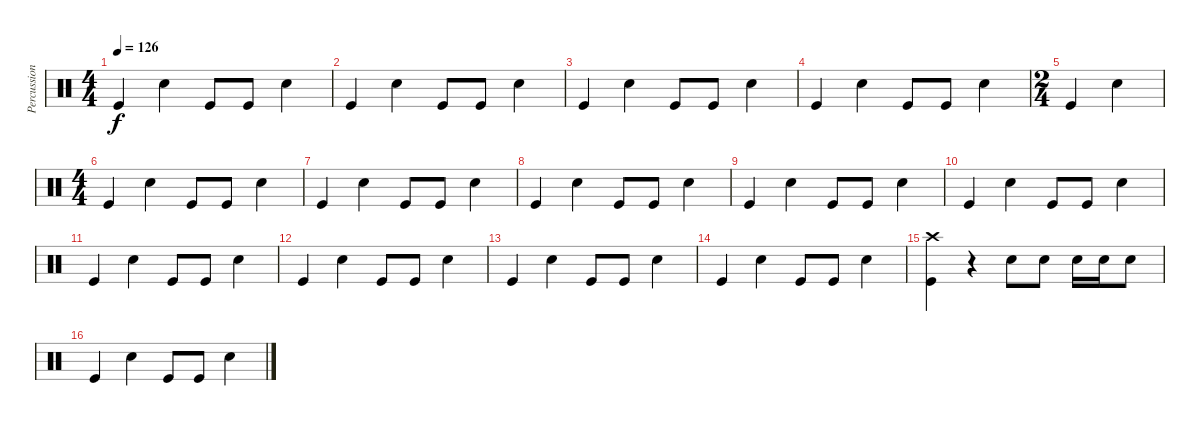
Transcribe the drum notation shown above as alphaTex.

\track ("Percussion" "Percussion") {instrument percussion}
\staff {score}
\articulation defaults
\ts (4 4)
\tempo 126
\clef neutral
\ks c "Kick (hit)".4{dy f} "Snare (hit) 2".4 "Kick (hit)".8 "Kick (hit)".8 "Snare (hit) 2".4
|
"Kick (hit)".4 "Snare (hit) 2".4 "Kick (hit)".8 "Kick (hit)".8 "Snare (hit) 2".4 |
"Kick (hit)".4 "Snare (hit) 2".4 "Kick (hit)".8 "Kick (hit)".8 "Snare (hit) 2".4 |
"Kick (hit)".4 "Snare (hit) 2".4 "Kick (hit)".8 "Kick (hit)".8 "Snare (hit) 2".4 |
\ts (2 4)
"Kick (hit)".4 "Snare (hit) 2".4 |
\ts (4 4)
"Kick (hit)".4 "Snare (hit) 2".4 "Kick (hit)".8 "Kick (hit)".8 "Snare (hit) 2".4 |
"Kick (hit)".4 "Snare (hit) 2".4 "Kick (hit)".8 "Kick (hit)".8 "Snare (hit) 2".4 |
"Kick (hit)".4 "Snare (hit) 2".4 "Kick (hit)".8 "Kick (hit)".8 "Snare (hit) 2".4 |
"Kick (hit)".4 "Snare (hit) 2".4 "Kick (hit)".8 "Kick (hit)".8 "Snare (hit) 2".4 |
"Kick (hit)".4 "Snare (hit) 2".4 "Kick (hit)".8 "Kick (hit)".8 "Snare (hit) 2".4 |
"Kick (hit)".4 "Snare (hit) 2".4 "Kick (hit)".8 "Kick (hit)".8 "Snare (hit) 2".4 |
"Kick (hit)".4 "Snare (hit) 2".4 "Kick (hit)".8 "Kick (hit)".8 "Snare (hit) 2".4 |
"Kick (hit)".4 "Snare (hit) 2".4 "Kick (hit)".8 "Kick (hit)".8 "Snare (hit) 2".4 |
"Kick (hit)".4 "Snare (hit) 2".4 "Kick (hit)".8 "Kick (hit)".8 "Snare (hit) 2".4 |
("Crash high (hit)" "Kick (hit)").4 r.4 "Snare (hit) 2".8 "Snare (hit) 2".8 "Snare (hit) 2".16 "Snare (hit) 2".16 "Snare (hit) 2".8 |
"Kick (hit)".4 "Snare (hit) 2".4 "Kick (hit)".8 "Kick (hit)".8 "Snare (hit) 2".4
